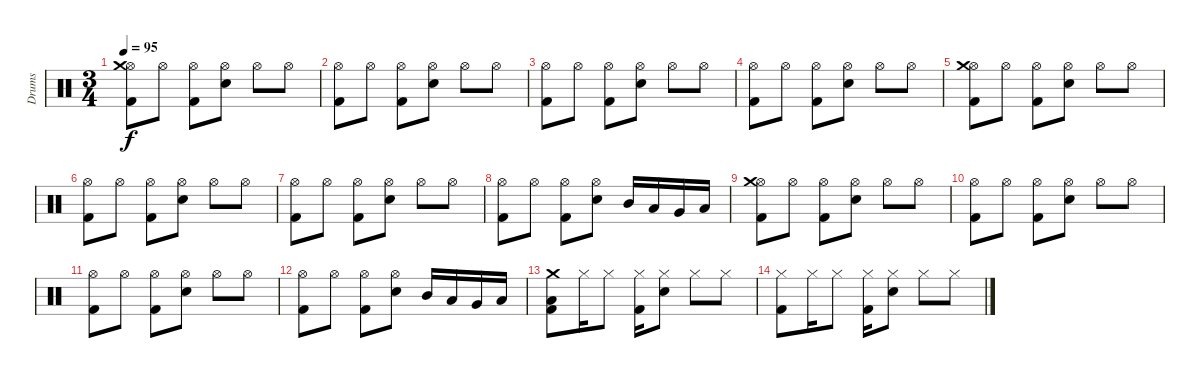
\track ("Drums" "Drums") {instrument percussion}
\staff {score}
\articulation defaults
\ts (3 4)
\tempo 95
\clef neutral
\ks c
("Hi-Hat (open)" "Crash medium (hit)" "Kick (hit) 2").8{dy f volume 14} "Hi-Hat (open)".8 ("Hi-Hat (open)" "Kick (hit) 2").8 ("Hi-Hat (open)" "Electric Snare (hit)").8 "Hi-Hat (open)".8 "Hi-Hat (open)".8 |
("Hi-Hat (open)" "Kick (hit) 2").8 "Hi-Hat (open)".8 ("Hi-Hat (open)" "Kick (hit) 2").8 ("Hi-Hat (open)" "Electric Snare (hit)").8 "Hi-Hat (open)".8 "Hi-Hat (open)".8 |
("Hi-Hat (open)" "Kick (hit) 2").8 "Hi-Hat (open)".8 ("Hi-Hat (open)" "Kick (hit) 2").8 ("Hi-Hat (open)" "Electric Snare (hit)").8 "Hi-Hat (open)".8 "Hi-Hat (open)".8 |
("Hi-Hat (open)" "Kick (hit) 2").8 "Hi-Hat (open)".8 ("Hi-Hat (open)" "Kick (hit) 2").8 ("Hi-Hat (open)" "Electric Snare (hit)").8 "Hi-Hat (open)".8 "Hi-Hat (open)".8 |
("Hi-Hat (open)" "Crash medium (hit)" "Kick (hit) 2").8 "Hi-Hat (open)".8 ("Hi-Hat (open)" "Kick (hit) 2").8 ("Hi-Hat (open)" "Electric Snare (hit)").8 "Hi-Hat (open)".8 "Hi-Hat (open)".8 |
("Hi-Hat (open)" "Kick (hit) 2").8 "Hi-Hat (open)".8 ("Hi-Hat (open)" "Kick (hit) 2").8 ("Hi-Hat (open)" "Electric Snare (hit)").8 "Hi-Hat (open)".8 "Hi-Hat (open)".8 |
("Hi-Hat (open)" "Kick (hit) 2").8 "Hi-Hat (open)".8 ("Hi-Hat (open)" "Kick (hit) 2").8 ("Hi-Hat (open)" "Electric Snare (hit)").8 "Hi-Hat (open)".8 "Hi-Hat (open)".8 |
("Hi-Hat (open)" "Kick (hit) 2").8 "Hi-Hat (open)".8 ("Hi-Hat (open)" "Kick (hit) 2").8 ("Hi-Hat (open)" "Electric Snare (hit)").8 "Mid Tom (hit)".16 "Low Tom (hit)".16 "Very Low Tom (hit)".16 "Low Floor Tom (hit)".16 |
("Hi-Hat (open)" "Crash medium (hit)" "Kick (hit) 2").8{volume 14} "Hi-Hat (open)".8 ("Hi-Hat (open)" "Kick (hit) 2").8 ("Hi-Hat (open)" "Electric Snare (hit)").8 "Hi-Hat (open)".8 "Hi-Hat (open)".8 |
("Hi-Hat (open)" "Kick (hit) 2").8 "Hi-Hat (open)".8 ("Hi-Hat (open)" "Kick (hit) 2").8 ("Hi-Hat (open)" "Electric Snare (hit)").8 "Hi-Hat (open)".8 "Hi-Hat (open)".8 |
("Hi-Hat (open)" "Kick (hit) 2").8 "Hi-Hat (open)".8 ("Hi-Hat (open)" "Kick (hit) 2").8 ("Hi-Hat (open)" "Electric Snare (hit)").8 "Hi-Hat (open)".8 "Hi-Hat (open)".8 |
("Hi-Hat (open)" "Kick (hit) 2").8 "Hi-Hat (open)".8 ("Hi-Hat (open)" "Kick (hit) 2").8 ("Hi-Hat (open)" "Electric Snare (hit)").8 "Mid Tom (hit)".16 "Low Tom (hit)".16 "Very Low Tom (hit)".16 "Low Floor Tom (hit)".16 |
("Crash medium (hit)" "Low Tom (hit)" "Kick (hit) 2").8{volume 16} "Hi-Hat (closed)".16{volume 15} "Hi-Hat (closed)".8 ("Hi-Hat (closed)" "Kick (hit) 2").16 ("Hi-Hat (closed)" "Electric Snare (hit)").8 "Hi-Hat (closed)".8 "Hi-Hat (closed)".8 |
("Hi-Hat (closed)" "Kick (hit) 2").8 "Hi-Hat (closed)".16 "Hi-Hat (closed)".8 ("Hi-Hat (closed)" "Kick (hit) 2").16 ("Hi-Hat (closed)" "Electric Snare (hit)").8 "Hi-Hat (closed)".8 "Hi-Hat (closed)".8
